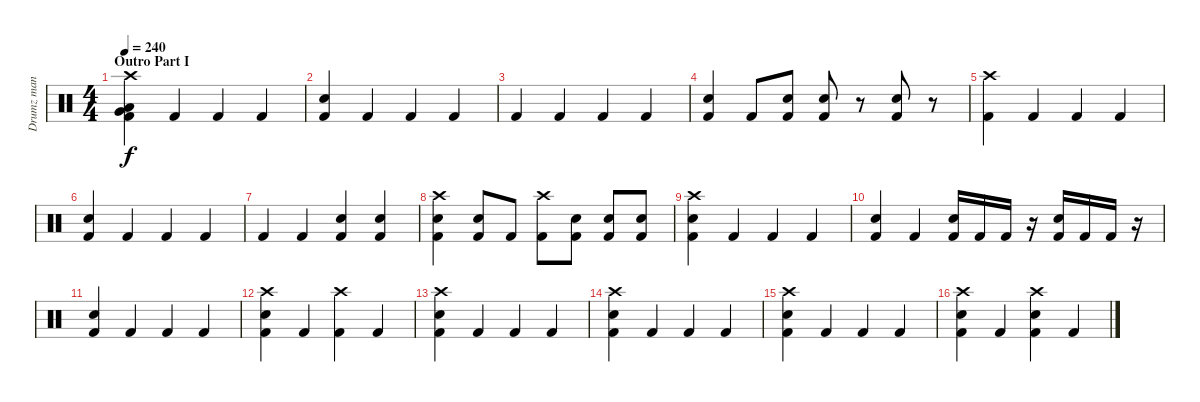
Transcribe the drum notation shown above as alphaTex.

\track ("Drumz man" "Drumz man") {instrument percussion}
\staff {score}
\articulation defaults
\ts (4 4)
\section ("" "Outro Part I")
\tempo 240
\clef neutral
\ks c
("Crash high (hit)" "Kick (hit) 2" "Low Floor Tom (hit)" "Very Low Tom (hit)").4{dy f} "Kick (hit) 2".4 "Kick (hit) 2".4 "Kick (hit) 2".4 |
("Kick (hit) 2" "Snare (hit) 2").4 "Kick (hit) 2".4 "Kick (hit) 2".4 "Kick (hit) 2".4 |
"Kick (hit) 2".4 "Kick (hit) 2".4 "Kick (hit) 2".4 "Kick (hit) 2".4 |
("Kick (hit) 2" "Snare (hit) 2").4 "Kick (hit) 2".8 ("Kick (hit) 2" "Snare (hit) 2").8 ("Kick (hit) 2" "Snare (hit) 2").8 r.8 ("Kick (hit) 2" "Snare (hit) 2").8 r.8 |
("Crash high (hit)" "Kick (hit) 2").4 "Kick (hit) 2".4 "Kick (hit) 2".4 "Kick (hit) 2".4 |
("Kick (hit) 2" "Snare (hit) 2").4 "Kick (hit) 2".4 "Kick (hit) 2".4 "Kick (hit) 2".4 |
"Kick (hit) 2".4 "Kick (hit) 2".4 ("Kick (hit) 2" "Electric Snare (hit)").4 ("Kick (hit) 2" "Electric Snare (hit)").4 |
("Crash high (hit)" "Kick (hit) 2" "Snare (hit) 2").4 ("Kick (hit) 2" "Electric Snare (hit)").8 "Kick (hit) 2".8 ("Crash high (hit)" "Kick (hit) 2").8 ("Kick (hit) 2" "Electric Snare (hit)").8 ("Kick (hit) 2" "Electric Snare (hit)").8 ("Kick (hit) 2" "Electric Snare (hit)").8 |
("Crash high (hit)" "Kick (hit) 2" "Snare (hit) 2").4 "Kick (hit) 2".4 "Kick (hit) 2".4 "Kick (hit) 2".4 |
("Kick (hit) 2" "Snare (hit) 2").4 "Kick (hit) 2".4 ("Kick (hit) 2" "Electric Snare (hit)").16 "Kick (hit) 2".16 "Kick (hit) 2".16 r.16 ("Kick (hit) 2" "Electric Snare (hit)").16 "Kick (hit) 2".16 "Kick (hit) 2".16 r.16 |
("Kick (hit) 2" "Snare (hit) 2").4 "Kick (hit) 2".4 "Kick (hit) 2".4 "Kick (hit) 2".4 |
("Crash high (hit)" "Kick (hit) 2" "Snare (hit) 2").4 "Kick (hit) 2".4 ("Crash high (hit)" "Kick (hit) 2").4 "Kick (hit) 2".4 |
("Crash high (hit)" "Kick (hit) 2" "Snare (hit) 2").4 "Kick (hit) 2".4 "Kick (hit) 2".4 "Kick (hit) 2".4 |
("Crash high (hit)" "Kick (hit) 2" "Snare (hit) 2").4 "Kick (hit) 2".4 "Kick (hit) 2".4 "Kick (hit) 2".4 |
("Crash high (hit)" "Kick (hit) 2" "Snare (hit) 2").4 "Kick (hit) 2".4 "Kick (hit) 2".4 "Kick (hit) 2".4 |
("Crash high (hit)" "Kick (hit) 2" "Snare (hit) 2").4 "Kick (hit) 2".4 ("Crash high (hit)" "Kick (hit) 2" "Snare (hit) 2").4 "Kick (hit) 2".4
